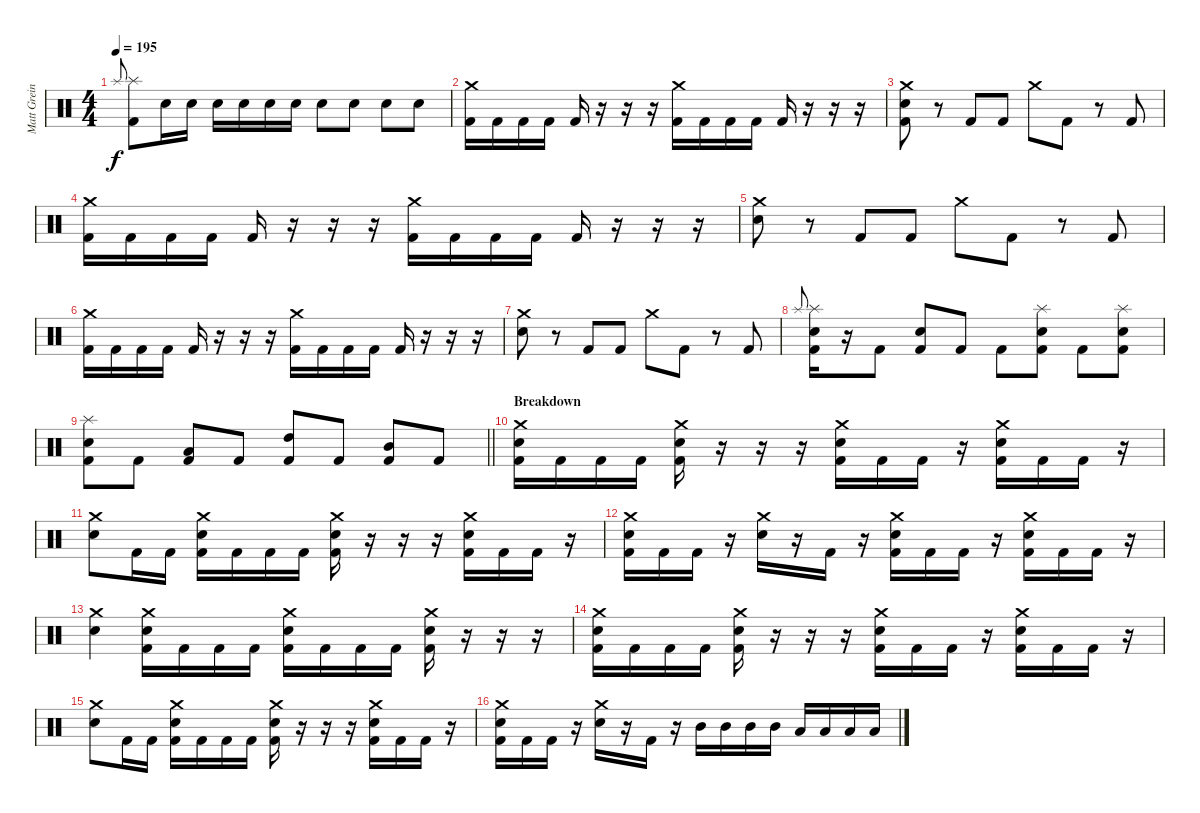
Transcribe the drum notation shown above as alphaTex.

\track ("Matt Greiner" "Matt Grein") {instrument percussion}
\staff {score}
\articulation defaults
\ts (4 4)
\tempo 195
\clef neutral
\ks c "Splash (hit)".8{gr onbeat dy f}
("Splash (hit)" "Kick (hit) 2").8 "Electric Snare (hit)".16 "Electric Snare (hit)".16 "Electric Snare (hit)".16 "Electric Snare (hit)".16 "Electric Snare (hit)".16 "Electric Snare (hit)".16 "Electric Snare (hit)".8 "Electric Snare (hit)".8 "Electric Snare (hit)".8 "Electric Snare (hit)".8 |
("Crash medium (hit)" "Kick (hit) 2").16 "Kick (hit) 2".16 "Kick (hit) 2".16 "Kick (hit) 2".16 "Kick (hit) 2".16 r.16 r.16 r.16 ("Crash medium (hit)" "Kick (hit) 2").16 "Kick (hit) 2".16 "Kick (hit) 2".16 "Kick (hit) 2".16 "Kick (hit) 2".16 r.16 r.16 r.16 |
("Crash medium (hit)" "Electric Snare (hit)" "Kick (hit) 2").8 r.8 "Kick (hit) 2".8 "Kick (hit) 2".8 "Crash medium (hit)".8 "Kick (hit) 2".8 r.8 "Kick (hit) 2".8 |
("Crash medium (hit)" "Kick (hit) 2").16 "Kick (hit) 2".16 "Kick (hit) 2".16 "Kick (hit) 2".16 "Kick (hit) 2".16 r.16 r.16 r.16 ("Crash medium (hit)" "Kick (hit) 2").16 "Kick (hit) 2".16 "Kick (hit) 2".16 "Kick (hit) 2".16 "Kick (hit) 2".16 r.16 r.16 r.16 |
("Crash medium (hit)" "Electric Snare (hit)").8 r.8 "Kick (hit) 2".8 "Kick (hit) 2".8 "Crash medium (hit)".8 "Kick (hit) 2".8 r.8 "Kick (hit) 2".8 |
("Crash medium (hit)" "Kick (hit) 2").16 "Kick (hit) 2".16 "Kick (hit) 2".16 "Kick (hit) 2".16 "Kick (hit) 2".16 r.16 r.16 r.16 ("Crash medium (hit)" "Kick (hit) 2").16 "Kick (hit) 2".16 "Kick (hit) 2".16 "Kick (hit) 2".16 "Kick (hit) 2".16 r.16 r.16 r.16 |
("Crash medium (hit)" "Electric Snare (hit)").8 r.8 "Kick (hit) 2".8 "Kick (hit) 2".8 "Crash medium (hit)".8 "Kick (hit) 2".8 r.8 "Kick (hit) 2".8 |
"Splash (hit)".8{gr onbeat} ("Splash (hit)" "Electric Snare (hit)" "Kick (hit) 2").16 r.16 "Kick (hit) 2".8 ("Electric Snare (hit)" "Kick (hit) 2").8 "Kick (hit) 2".8 "Kick (hit) 2".8 ("Splash (hit)" "Electric Snare (hit)" "Kick (hit) 2").8 "Kick (hit) 2".8 ("Splash (hit)" "Electric Snare (hit)" "Kick (hit) 2").8 |
\barLineRight lightlight
("Splash (hit)" "Electric Snare (hit)" "Kick (hit) 2").8 "Kick (hit) 2".8 ("Low Tom (hit)" "Kick (hit) 2").8 "Kick (hit) 2".8 ("High Tom (hit)" "Kick (hit) 2").8 "Kick (hit) 2".8 ("Mid Tom (hit)" "Kick (hit) 2").8 "Kick (hit) 2".8 |
\section ("" "Breakdown")
("Crash medium (hit)" "Electric Snare (hit)" "Kick (hit) 2").16 "Kick (hit) 2".16 "Kick (hit) 2".16 "Kick (hit) 2".16 ("Crash medium (hit)" "Electric Snare (hit)" "Kick (hit) 2").16 r.16 r.16 r.16 ("Crash medium (hit)" "Electric Snare (hit)" "Kick (hit) 2").16 "Kick (hit) 2".16 "Kick (hit) 2".16 r.16 ("Crash medium (hit)" "Electric Snare (hit)" "Kick (hit) 2").16 "Kick (hit) 2".16 "Kick (hit) 2".16 r.16 |
("Crash medium (hit)" "Electric Snare (hit)").8 "Kick (hit) 2".16 "Kick (hit) 2".16 ("Crash medium (hit)" "Electric Snare (hit)" "Kick (hit) 2").16 "Kick (hit) 2".16 "Kick (hit) 2".16 "Kick (hit) 2".16 ("Crash medium (hit)" "Electric Snare (hit)" "Kick (hit) 2").16 r.16 r.16 r.16 ("Crash medium (hit)" "Electric Snare (hit)" "Kick (hit) 2").16 "Kick (hit) 2".16 "Kick (hit) 2".16 r.16 |
("Crash medium (hit)" "Electric Snare (hit)" "Kick (hit) 2").16 "Kick (hit) 2".16 "Kick (hit) 2".16 r.16 ("Crash medium (hit)" "Electric Snare (hit)").16 r.16 "Kick (hit) 2".16 r.16 ("Crash medium (hit)" "Electric Snare (hit)" "Kick (hit) 2").16 "Kick (hit) 2".16 "Kick (hit) 2".16 r.16 ("Crash medium (hit)" "Electric Snare (hit)" "Kick (hit) 2").16 "Kick (hit) 2".16 "Kick (hit) 2".16 r.16 |
("Crash medium (hit)" "Electric Snare (hit)").4 ("Crash medium (hit)" "Electric Snare (hit)" "Kick (hit) 2").16 "Kick (hit) 2".16 "Kick (hit) 2".16 "Kick (hit) 2".16 ("Crash medium (hit)" "Electric Snare (hit)" "Kick (hit) 2").16 "Kick (hit) 2".16 "Kick (hit) 2".16 "Kick (hit) 2".16 ("Crash medium (hit)" "Electric Snare (hit)" "Kick (hit) 2").16 r.16 r.16 r.16 |
("Crash medium (hit)" "Electric Snare (hit)" "Kick (hit) 2").16 "Kick (hit) 2".16 "Kick (hit) 2".16 "Kick (hit) 2".16 ("Crash medium (hit)" "Electric Snare (hit)" "Kick (hit) 2").16 r.16 r.16 r.16 ("Crash medium (hit)" "Electric Snare (hit)" "Kick (hit) 2").16 "Kick (hit) 2".16 "Kick (hit) 2".16 r.16 ("Crash medium (hit)" "Electric Snare (hit)" "Kick (hit) 2").16 "Kick (hit) 2".16 "Kick (hit) 2".16 r.16 |
("Crash medium (hit)" "Electric Snare (hit)").8 "Kick (hit) 2".16 "Kick (hit) 2".16 ("Crash medium (hit)" "Electric Snare (hit)" "Kick (hit) 2").16 "Kick (hit) 2".16 "Kick (hit) 2".16 "Kick (hit) 2".16 ("Crash medium (hit)" "Electric Snare (hit)" "Kick (hit) 2").16 r.16 r.16 r.16 ("Crash medium (hit)" "Electric Snare (hit)" "Kick (hit) 2").16 "Kick (hit) 2".16 "Kick (hit) 2".16 r.16 |
("Crash medium (hit)" "Electric Snare (hit)" "Kick (hit) 2").16 "Kick (hit) 2".16 "Kick (hit) 2".16 r.16 ("Crash medium (hit)" "Electric Snare (hit)").16 r.16 "Kick (hit) 2".16 r.16 "Mid Tom (hit)".16 "Mid Tom (hit)".16 "Mid Tom (hit)".16 "Mid Tom (hit)".16 "Low Tom (hit)".16 "Low Tom (hit)".16 "Low Tom (hit)".16 "Low Tom (hit)".16
